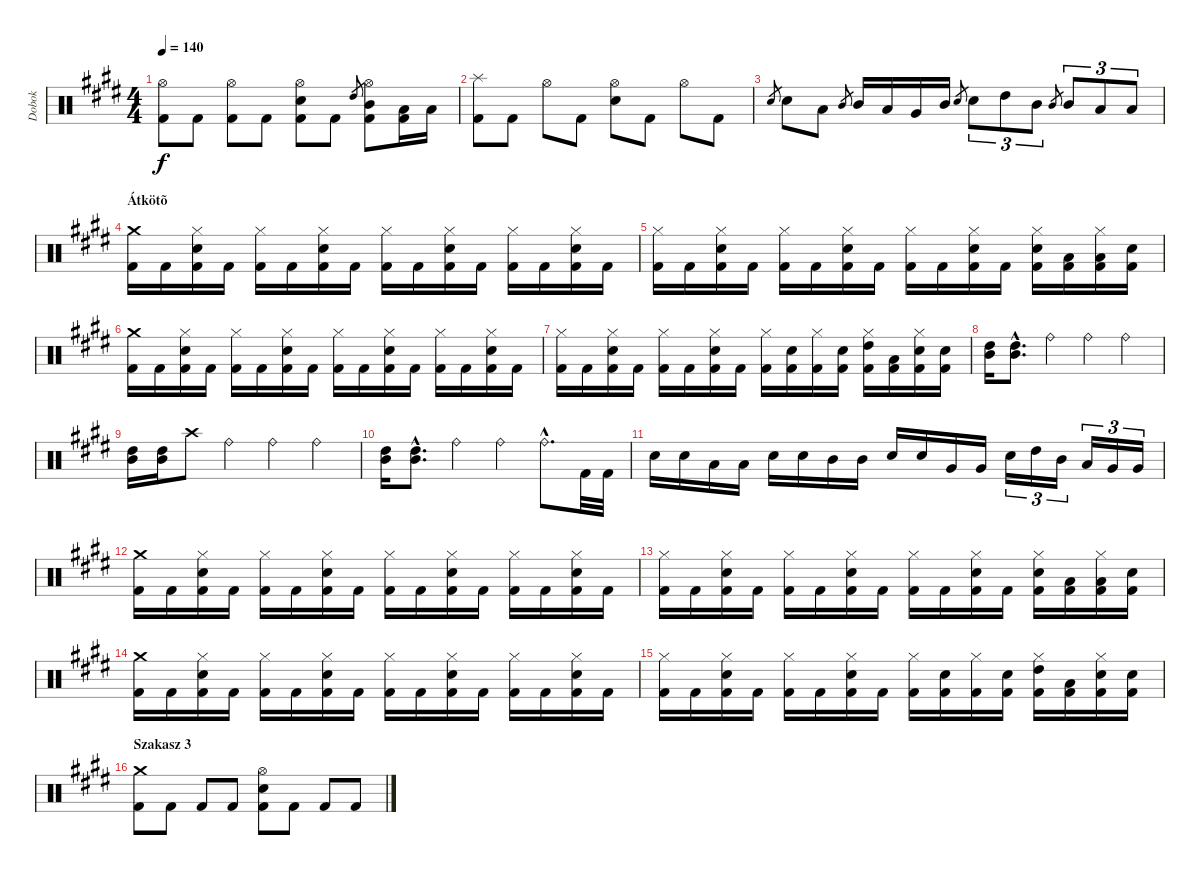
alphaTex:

\track ("Dobok" "Dobok") {instrument percussion}
\staff {score}
\articulation defaults
\ts (4 4)
\tempo 140
\clef neutral
\ks c#minor
("Hi-Hat (open)" "Kick (hit) 2").8{dy f} "Kick (hit) 2".8 ("Hi-Hat (open)" "Kick (hit) 2").8 "Kick (hit) 2".8 ("Hi-Hat (open)" "Snare (hit) 2" "Kick (hit) 2").8 "Kick (hit) 2".8 "High Tom (hit)".8{gr} ("Hi-Hat (open)" "Mid Tom (hit)" "Kick (hit) 2").8 ("Low Tom (hit)" "Kick (hit) 2").16 "Low Tom (hit)".16 |
("Splash (hit)" "Kick (hit) 2").8 "Kick (hit) 2".8 "Hi-Hat (open)".8 "Kick (hit) 2".8 ("Hi-Hat (open)" "Snare (hit) 2").8 "Kick (hit) 2".8 "Hi-Hat (open)".8 "Kick (hit) 2".8 |
"Snare (hit) 2".8{gr} "Snare (hit) 2".8 "Low Tom (hit)".8 "Mid Tom (hit)".8{gr} "Mid Tom (hit)".16 "Low Tom (hit)".16 "Very Low Tom (hit)".16 "Mid Tom (hit)".16 "Snare (hit) 2".8{gr} "Snare (hit) 2".8{tu (3 2)} "High Tom (hit)".8{tu (3 2)} "Mid Tom (hit)".8{tu (3 2)} "Mid Tom (hit)".8{gr} "Mid Tom (hit)".8{tu (3 2)} "Low Tom (hit)".8{tu (3 2)} "Low Tom (hit)".8{tu (3 2)} |
\section ("" "Átkötõ")
("Crash medium (hit)" "Kick (hit) 2").16 "Kick (hit) 2".16 ("Hi-Hat (closed)" "Snare (hit) 2" "Kick (hit) 2").16 "Kick (hit) 2".16 ("Hi-Hat (closed)" "Kick (hit) 2").16 "Kick (hit) 2".16 ("Hi-Hat (closed)" "Snare (hit) 2" "Kick (hit) 2").16 "Kick (hit) 2".16 ("Hi-Hat (closed)" "Kick (hit) 2").16 "Kick (hit) 2".16 ("Hi-Hat (closed)" "Snare (hit) 2" "Kick (hit) 2").16 "Kick (hit) 2".16 ("Hi-Hat (closed)" "Kick (hit) 2").16 "Kick (hit) 2".16 ("Hi-Hat (closed)" "Snare (hit) 2" "Kick (hit) 2").16 "Kick (hit) 2".16 |
("Hi-Hat (closed)" "Kick (hit) 2").16 "Kick (hit) 2".16 ("Hi-Hat (closed)" "Snare (hit) 2" "Kick (hit) 2").16 "Kick (hit) 2".16 ("Hi-Hat (closed)" "Kick (hit) 2").16 "Kick (hit) 2".16 ("Hi-Hat (closed)" "Snare (hit) 2" "Kick (hit) 2").16 "Kick (hit) 2".16 ("Hi-Hat (closed)" "Kick (hit) 2").16 "Kick (hit) 2".16 ("Hi-Hat (closed)" "Snare (hit) 2" "Kick (hit) 2").16 "Kick (hit) 2".16 ("Hi-Hat (closed)" "Snare (hit) 2" "Kick (hit) 2").16 ("Low Floor Tom (hit)" "Kick (hit) 2").16 ("Hi-Hat (closed)" "Low Floor Tom (hit)" "Kick (hit) 2").16 ("Snare (hit) 2" "Kick (hit) 2").16 |
("Crash medium (hit)" "Kick (hit) 2").16 "Kick (hit) 2".16 ("Hi-Hat (closed)" "Snare (hit) 2" "Kick (hit) 2").16 "Kick (hit) 2".16 ("Hi-Hat (closed)" "Kick (hit) 2").16 "Kick (hit) 2".16 ("Hi-Hat (closed)" "Snare (hit) 2" "Kick (hit) 2").16 "Kick (hit) 2".16 ("Hi-Hat (closed)" "Kick (hit) 2").16 "Kick (hit) 2".16 ("Hi-Hat (closed)" "Snare (hit) 2" "Kick (hit) 2").16 "Kick (hit) 2".16 ("Hi-Hat (closed)" "Kick (hit) 2").16 "Kick (hit) 2".16 ("Hi-Hat (closed)" "Snare (hit) 2" "Kick (hit) 2").16 "Kick (hit) 2".16 |
("Hi-Hat (closed)" "Kick (hit) 2").16 "Kick (hit) 2".16 ("Hi-Hat (closed)" "Snare (hit) 2" "Kick (hit) 2").16 "Kick (hit) 2".16 ("Hi-Hat (closed)" "Kick (hit) 2").16 "Kick (hit) 2".16 ("Hi-Hat (closed)" "Snare (hit) 2" "Kick (hit) 2").16 "Kick (hit) 2".16 ("Hi-Hat (closed)" "Kick (hit) 2").16 ("Snare (hit) 2" "Kick (hit) 2").16 ("Hi-Hat (closed)" "Kick (hit) 2").16 ("Snare (hit) 2" "Kick (hit) 2").16 ("Hi-Hat (closed)" "High Tom (hit)" "Kick (hit) 2").16 ("Low Tom (hit)" "Kick (hit) 2").16 ("Hi-Hat (closed)" "Snare (hit) 2" "Kick (hit) 2").16 ("Snare (hit) 2" "Kick (hit) 2").16 |
("High Tom (hit)" "Mid Tom (hit)").16 ("High Tom (hit)"{hac} "Mid Tom (hit)"{hac}).8{d} "Ride (bell)".4 "Ride (bell)".4 "Ride (bell)".4 |
("High Tom (hit)" "Mid Tom (hit)").16 ("High Tom (hit)" "Mid Tom (hit)").16 "Crash high (hit)".8 "Ride (bell)".4 "Ride (bell)".4 "Ride (bell)".4 |
("High Tom (hit)" "Mid Tom (hit)").16 ("High Tom (hit)"{hac} "Mid Tom (hit)"{hac}).8{d} "Ride (bell)".4 "Ride (bell)".4 "Ride (bell)"{hac}.8{d} "Kick (hit) 2".32 "Kick (hit) 2".32 |
"Snare (hit) 2".16 "Snare (hit) 2".16 "Low Tom (hit)".16 "Low Tom (hit)".16 "Snare (hit) 2".16 "Snare (hit) 2".16 "Mid Tom (hit)".16 "Mid Tom (hit)".16 "Snare (hit) 2".16 "Snare (hit) 2".16 "Very Low Tom (hit)".16 "Very Low Tom (hit)".16 "Snare (hit) 2".16{tu (3 2)} "High Tom (hit)".16{tu (3 2)} "Mid Tom (hit)".16{tu (3 2)} "Low Tom (hit)".16{tu (3 2)} "Very Low Tom (hit)".16{tu (3 2)} "Very Low Tom (hit)".16{tu (3 2)} |
("Crash medium (hit)" "Kick (hit) 2").16 "Kick (hit) 2".16 ("Hi-Hat (closed)" "Snare (hit) 2" "Kick (hit) 2").16 "Kick (hit) 2".16 ("Hi-Hat (closed)" "Kick (hit) 2").16 "Kick (hit) 2".16 ("Hi-Hat (closed)" "Snare (hit) 2" "Kick (hit) 2").16 "Kick (hit) 2".16 ("Hi-Hat (closed)" "Kick (hit) 2").16 "Kick (hit) 2".16 ("Hi-Hat (closed)" "Snare (hit) 2" "Kick (hit) 2").16 "Kick (hit) 2".16 ("Hi-Hat (closed)" "Kick (hit) 2").16 "Kick (hit) 2".16 ("Hi-Hat (closed)" "Snare (hit) 2" "Kick (hit) 2").16 "Kick (hit) 2".16 |
("Hi-Hat (closed)" "Kick (hit) 2").16 "Kick (hit) 2".16 ("Hi-Hat (closed)" "Snare (hit) 2" "Kick (hit) 2").16 "Kick (hit) 2".16 ("Hi-Hat (closed)" "Kick (hit) 2").16 "Kick (hit) 2".16 ("Hi-Hat (closed)" "Snare (hit) 2" "Kick (hit) 2").16 "Kick (hit) 2".16 ("Hi-Hat (closed)" "Kick (hit) 2").16 "Kick (hit) 2".16 ("Hi-Hat (closed)" "Snare (hit) 2" "Kick (hit) 2").16 "Kick (hit) 2".16 ("Hi-Hat (closed)" "Snare (hit) 2" "Kick (hit) 2").16 ("Low Floor Tom (hit)" "Kick (hit) 2").16 ("Hi-Hat (closed)" "Low Floor Tom (hit)" "Kick (hit) 2").16 ("Snare (hit) 2" "Kick (hit) 2").16 |
("Crash medium (hit)" "Kick (hit) 2").16 "Kick (hit) 2".16 ("Hi-Hat (closed)" "Snare (hit) 2" "Kick (hit) 2").16 "Kick (hit) 2".16 ("Hi-Hat (closed)" "Kick (hit) 2").16 "Kick (hit) 2".16 ("Hi-Hat (closed)" "Snare (hit) 2" "Kick (hit) 2").16 "Kick (hit) 2".16 ("Hi-Hat (closed)" "Kick (hit) 2").16 "Kick (hit) 2".16 ("Hi-Hat (closed)" "Snare (hit) 2" "Kick (hit) 2").16 "Kick (hit) 2".16 ("Hi-Hat (closed)" "Kick (hit) 2").16 "Kick (hit) 2".16 ("Hi-Hat (closed)" "Snare (hit) 2" "Kick (hit) 2").16 "Kick (hit) 2".16 |
("Hi-Hat (closed)" "Kick (hit) 2").16 "Kick (hit) 2".16 ("Hi-Hat (closed)" "Snare (hit) 2" "Kick (hit) 2").16 "Kick (hit) 2".16 ("Hi-Hat (closed)" "Kick (hit) 2").16 "Kick (hit) 2".16 ("Hi-Hat (closed)" "Snare (hit) 2" "Kick (hit) 2").16 "Kick (hit) 2".16 ("Hi-Hat (closed)" "Kick (hit) 2").16 ("Snare (hit) 2" "Kick (hit) 2").16 ("Hi-Hat (closed)" "Kick (hit) 2").16 ("Snare (hit) 2" "Kick (hit) 2").16 ("Hi-Hat (closed)" "High Tom (hit)" "Kick (hit) 2").16 ("Low Tom (hit)" "Kick (hit) 2").16 ("Hi-Hat (closed)" "Snare (hit) 2" "Kick (hit) 2").16 ("Snare (hit) 2" "Kick (hit) 2").16 |
\section ("" "Szakasz 3")
("Crash medium (hit)" "Kick (hit) 2").8 "Kick (hit) 2".8 "Kick (hit) 2".8 "Kick (hit) 2".8 ("Hi-Hat (open)" "Snare (hit) 2" "Kick (hit) 2").8 "Kick (hit) 2".8 "Kick (hit) 2".8 "Kick (hit) 2".8
